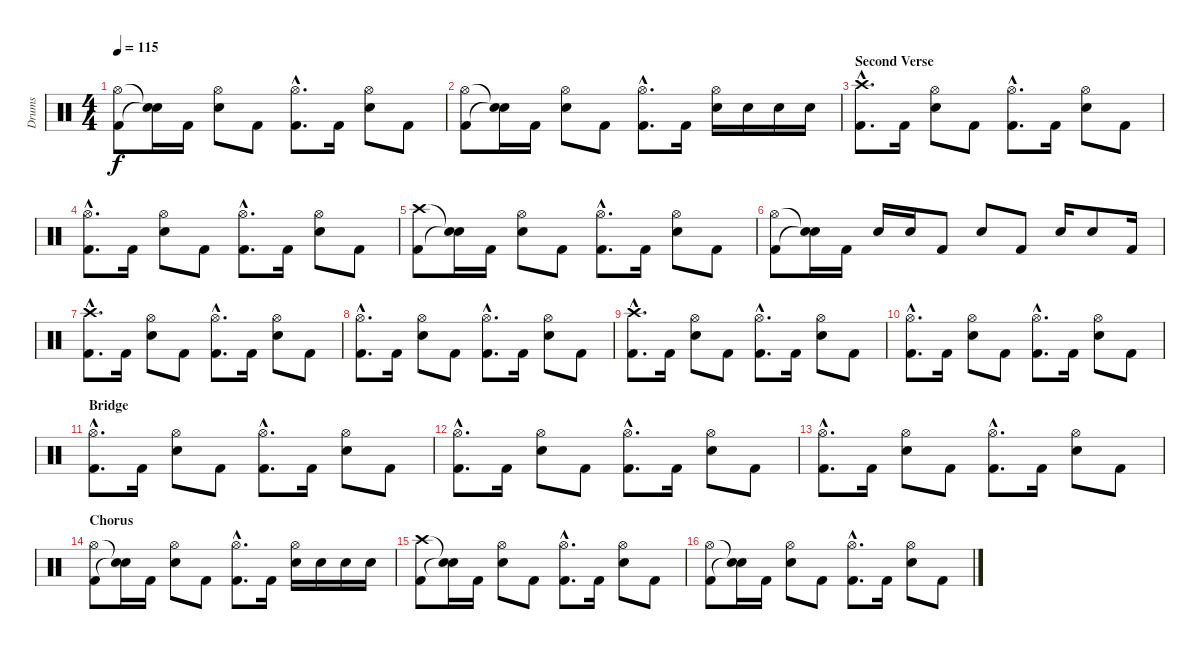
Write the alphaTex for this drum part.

\track ("Drums" "Drums") {instrument percussion}
\staff {score}
\articulation defaults
\ts (4 4)
\tempo 115
\clef neutral
\ks c
("Hi-Hat (open)" "Kick (hit) 2").8{dy f} ("Snare (hit)"{t} "Snare (hit)"{t}).16 "Kick (hit) 2".16 ("Hi-Hat (open)" "Snare (hit) 2").8 "Kick (hit) 2".8 ("Hi-Hat (open)"{hac} "Kick (hit) 2"{hac}).8{d} "Kick (hit) 2".16 ("Hi-Hat (open)" "Snare (hit) 2").8 "Kick (hit) 2".8 |
("Hi-Hat (open)" "Kick (hit) 2").8 ("Snare (hit)"{t} "Snare (hit)"{t}).16 "Kick (hit) 2".16 ("Hi-Hat (open)" "Snare (hit) 2").8 "Kick (hit) 2".8 ("Hi-Hat (open)"{hac} "Kick (hit) 2"{hac}).8{d} "Kick (hit) 2".16 ("Hi-Hat (open)" "Snare (hit) 2").16 "Snare (hit) 2".16 "Snare (hit) 2".16 "Snare (hit) 2".16 |
\section ("" "Second Verse")
("Crash high (hit)"{hac} "Kick (hit) 2"{hac}).8{d} "Kick (hit) 2".16 ("Hi-Hat (open)" "Snare (hit) 2").8 "Kick (hit) 2".8 ("Hi-Hat (open)"{hac} "Kick (hit) 2"{hac}).8{d} "Kick (hit) 2".16 ("Hi-Hat (open)" "Snare (hit) 2").8 "Kick (hit) 2".8 |
("Hi-Hat (open)"{hac} "Kick (hit) 2"{hac}).8{d} "Kick (hit) 2".16 ("Hi-Hat (open)" "Snare (hit) 2").8 "Kick (hit) 2".8 ("Hi-Hat (open)"{hac} "Kick (hit) 2"{hac}).8{d} "Kick (hit) 2".16 ("Hi-Hat (open)" "Snare (hit) 2").8 "Kick (hit) 2".8 |
("Crash high (hit)" "Kick (hit) 2").8 ("Snare (hit)"{t} "Snare (hit)"{t}).16 "Kick (hit) 2".16 ("Hi-Hat (open)" "Snare (hit) 2").8 "Kick (hit) 2".8 ("Hi-Hat (open)"{hac} "Kick (hit) 2"{hac}).8{d} "Kick (hit) 2".16 ("Hi-Hat (open)" "Snare (hit) 2").8 "Kick (hit) 2".8 |
("Hi-Hat (open)" "Kick (hit) 2").8 ("Snare (hit)"{t} "Snare (hit)"{t}).16 "Kick (hit) 2".16 "Snare (hit) 2".16 "Snare (hit) 2".16 "Kick (hit) 2".8 "Snare (hit) 2".8 "Kick (hit) 2".8 "Snare (hit) 2".16 "Snare (hit) 2".8 "Kick (hit) 2".16 |
("Crash high (hit)"{hac} "Kick (hit) 2"{hac}).8{d} "Kick (hit) 2".16 ("Hi-Hat (open)" "Snare (hit) 2").8 "Kick (hit) 2".8 ("Hi-Hat (open)"{hac} "Kick (hit) 2"{hac}).8{d} "Kick (hit) 2".16 ("Hi-Hat (open)" "Snare (hit) 2").8 "Kick (hit) 2".8 |
("Hi-Hat (open)"{hac} "Kick (hit) 2"{hac}).8{d} "Kick (hit) 2".16 ("Hi-Hat (open)" "Snare (hit) 2").8 "Kick (hit) 2".8 ("Hi-Hat (open)"{hac} "Kick (hit) 2"{hac}).8{d} "Kick (hit) 2".16 ("Hi-Hat (open)" "Snare (hit) 2").8 "Kick (hit) 2".8 |
("Crash high (hit)"{hac} "Kick (hit) 2"{hac}).8{d} "Kick (hit) 2".16 ("Hi-Hat (open)" "Snare (hit) 2").8 "Kick (hit) 2".8 ("Hi-Hat (open)"{hac} "Kick (hit) 2"{hac}).8{d} "Kick (hit) 2".16 ("Hi-Hat (open)" "Snare (hit) 2").8 "Kick (hit) 2".8 |
("Hi-Hat (open)"{hac} "Kick (hit) 2"{hac}).8{d} "Kick (hit) 2".16 ("Hi-Hat (open)" "Snare (hit) 2").8 "Kick (hit) 2".8 ("Hi-Hat (open)"{hac} "Kick (hit) 2"{hac}).8{d} "Kick (hit) 2".16 ("Hi-Hat (open)" "Snare (hit) 2").8 "Kick (hit) 2".8 |
\section ("" "Bridge")
("Hi-Hat (open)"{hac} "Kick (hit) 2"{hac}).8{d} "Kick (hit) 2".16 ("Hi-Hat (open)" "Snare (hit) 2").8 "Kick (hit) 2".8 ("Hi-Hat (open)"{hac} "Kick (hit) 2"{hac}).8{d} "Kick (hit) 2".16 ("Hi-Hat (open)" "Snare (hit) 2").8 "Kick (hit) 2".8 |
("Hi-Hat (open)"{hac} "Kick (hit) 2"{hac}).8{d} "Kick (hit) 2".16 ("Hi-Hat (open)" "Snare (hit) 2").8 "Kick (hit) 2".8 ("Hi-Hat (open)"{hac} "Kick (hit) 2"{hac}).8{d} "Kick (hit) 2".16 ("Hi-Hat (open)" "Snare (hit) 2").8 "Kick (hit) 2".8 |
("Hi-Hat (open)"{hac} "Kick (hit) 2"{hac}).8{d} "Kick (hit) 2".16 ("Hi-Hat (open)" "Snare (hit) 2").8 "Kick (hit) 2".8 ("Hi-Hat (open)"{hac} "Kick (hit) 2"{hac}).8{d} "Kick (hit) 2".16 ("Hi-Hat (open)" "Snare (hit) 2").8 "Kick (hit) 2".8 |
\section ("" "Chorus")
("Hi-Hat (open)" "Kick (hit) 2").8 ("Snare (hit)"{t} "Snare (hit)"{t}).16 "Kick (hit) 2".16 ("Hi-Hat (open)" "Snare (hit) 2").8 "Kick (hit) 2".8 ("Hi-Hat (open)"{hac} "Kick (hit) 2"{hac}).8{d} "Kick (hit) 2".16 ("Hi-Hat (open)" "Snare (hit) 2").16 "Snare (hit) 2".16 "Snare (hit) 2".16 "Snare (hit) 2".16 |
("Crash high (hit)" "Kick (hit) 2").8 ("Snare (hit)"{t} "Snare (hit)"{t}).16 "Kick (hit) 2".16 ("Hi-Hat (open)" "Snare (hit) 2").8 "Kick (hit) 2".8 ("Hi-Hat (open)"{hac} "Kick (hit) 2"{hac}).8{d} "Kick (hit) 2".16 ("Hi-Hat (open)" "Snare (hit) 2").8 "Kick (hit) 2".8 |
("Hi-Hat (open)" "Kick (hit) 2").8 ("Snare (hit)"{t} "Snare (hit)"{t}).16 "Kick (hit) 2".16 ("Hi-Hat (open)" "Snare (hit) 2").8 "Kick (hit) 2".8 ("Hi-Hat (open)"{hac} "Kick (hit) 2"{hac}).8{d} "Kick (hit) 2".16 ("Hi-Hat (open)" "Snare (hit) 2").8 "Kick (hit) 2".8
